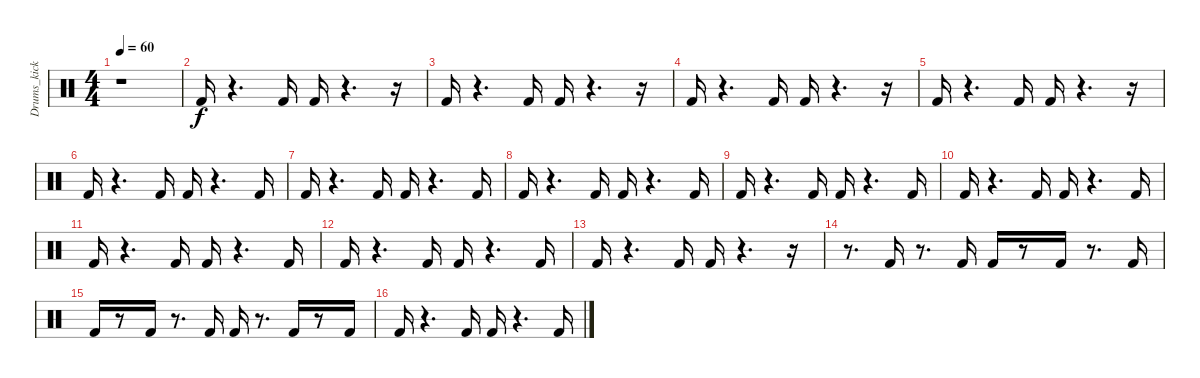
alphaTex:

\track ("Drums_kick" "Drums_kick") {instrument percussion}
\staff {score}
\articulation defaults
\ts (4 4)
\tempo 60
\clef neutral
\ks c
r.1{dy f} |
"Kick (hit) 2".16 r.4{d} "Kick (hit) 2".16 "Kick (hit) 2".16 r.4{d} r.16 |
"Kick (hit) 2".16 r.4{d} "Kick (hit) 2".16 "Kick (hit) 2".16 r.4{d} r.16 |
"Kick (hit) 2".16 r.4{d} "Kick (hit) 2".16 "Kick (hit) 2".16 r.4{d} r.16 |
"Kick (hit) 2".16 r.4{d} "Kick (hit) 2".16 "Kick (hit) 2".16 r.4{d} r.16 |
"Kick (hit) 2".16 r.4{d} "Kick (hit) 2".16 "Kick (hit) 2".16 r.4{d} "Kick (hit) 2".16 |
"Kick (hit) 2".16 r.4{d} "Kick (hit) 2".16 "Kick (hit) 2".16 r.4{d} "Kick (hit) 2".16 |
"Kick (hit) 2".16 r.4{d} "Kick (hit) 2".16 "Kick (hit) 2".16 r.4{d} "Kick (hit) 2".16 |
"Kick (hit) 2".16 r.4{d} "Kick (hit) 2".16 "Kick (hit) 2".16 r.4{d} "Kick (hit) 2".16 |
"Kick (hit) 2".16 r.4{d} "Kick (hit) 2".16 "Kick (hit) 2".16 r.4{d} "Kick (hit) 2".16 |
"Kick (hit) 2".16 r.4{d} "Kick (hit) 2".16 "Kick (hit) 2".16 r.4{d} "Kick (hit) 2".16 |
"Kick (hit) 2".16 r.4{d} "Kick (hit) 2".16 "Kick (hit) 2".16 r.4{d} "Kick (hit) 2".16 |
"Kick (hit) 2".16 r.4{d} "Kick (hit) 2".16 "Kick (hit) 2".16 r.4{d} r.16 |
r.8{d} "Kick (hit) 2".16 r.8{d} "Kick (hit) 2".16 "Kick (hit) 2".16 r.8 "Kick (hit) 2".16 r.8{d} "Kick (hit) 2".16 |
"Kick (hit) 2".16 r.8 "Kick (hit) 2".16 r.8{d} "Kick (hit) 2".16 "Kick (hit) 2".16 r.8{d} "Kick (hit) 2".16 r.8 "Kick (hit) 2".16 |
"Kick (hit) 2".16 r.4{d} "Kick (hit) 2".16 "Kick (hit) 2".16 r.4{d} "Kick (hit) 2".16
